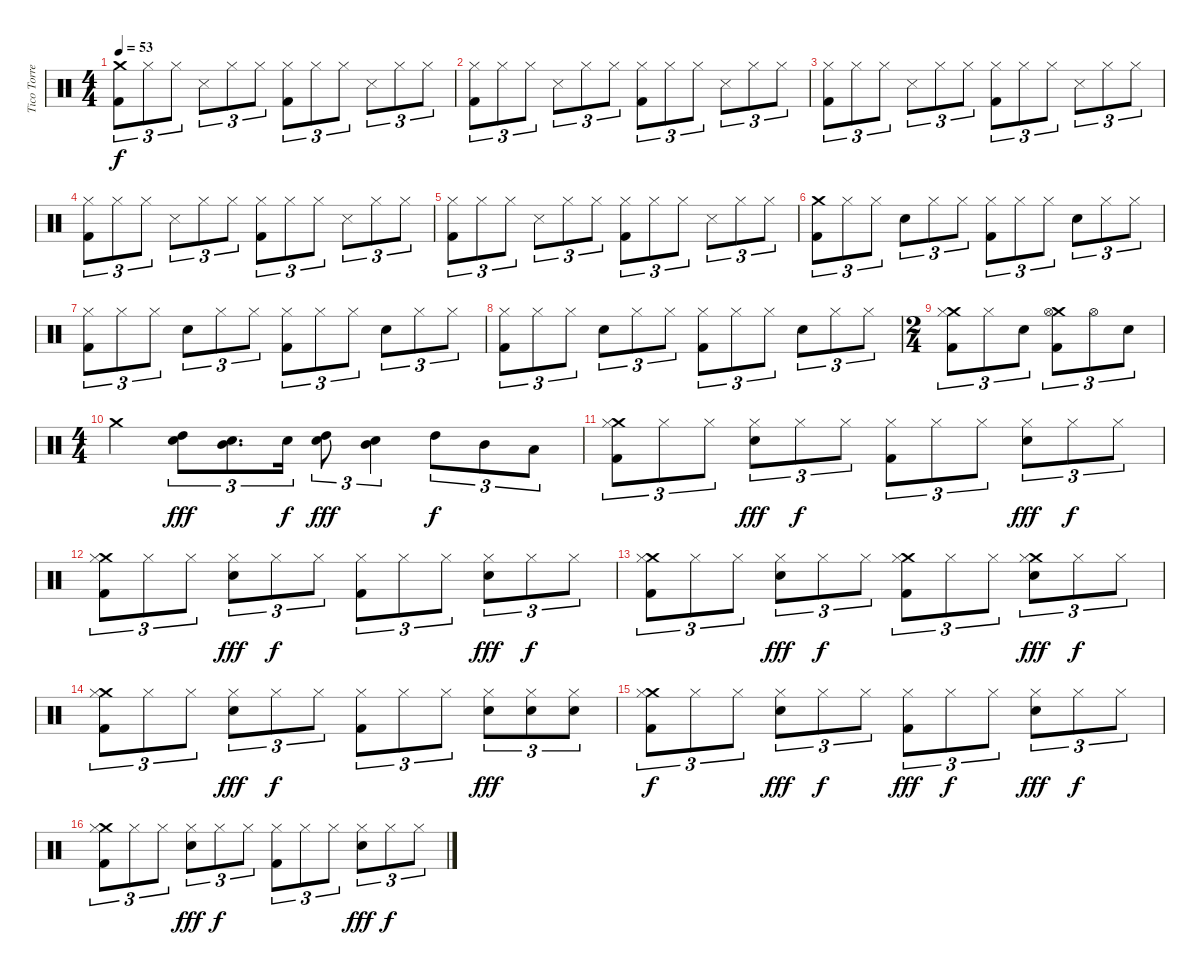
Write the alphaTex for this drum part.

\track ("Tico Torres (Drums)" "Tico Torre") {instrument percussion}
\staff {score}
\articulation defaults
\ts (4 4)
\tempo 53
\clef neutral
\ks c
("Crash medium (hit)" "Kick (hit) 2").8{tu (3 2) dy f} "Hi-Hat (closed)".8{tu (3 2) volume 3} "Hi-Hat (closed)".8{tu (3 2) volume 3} "Snare (side stick) 3".8{tu (3 2) volume 16} "Hi-Hat (closed)".8{tu (3 2) volume 3} "Hi-Hat (closed)".8{tu (3 2) volume 3} ("Hi-Hat (closed)" "Kick (hit) 2").8{tu (3 2) volume 3} "Hi-Hat (closed)".8{tu (3 2) volume 3} "Hi-Hat (closed)".8{tu (3 2) volume 3} "Snare (side stick) 3".8{tu (3 2) volume 16} "Hi-Hat (closed)".8{tu (3 2) volume 3} "Hi-Hat (closed)".8{tu (3 2) volume 3} |
("Hi-Hat (closed)" "Kick (hit) 2").8{tu (3 2) volume 3} "Hi-Hat (closed)".8{tu (3 2) volume 3} "Hi-Hat (closed)".8{tu (3 2) volume 3} "Snare (side stick) 3".8{tu (3 2) volume 16} "Hi-Hat (closed)".8{tu (3 2) volume 3} "Hi-Hat (closed)".8{tu (3 2) volume 3} ("Hi-Hat (closed)" "Kick (hit) 2").8{tu (3 2) volume 3} "Hi-Hat (closed)".8{tu (3 2) volume 3} "Hi-Hat (closed)".8{tu (3 2) volume 3} "Snare (side stick) 3".8{tu (3 2) volume 16} "Hi-Hat (closed)".8{tu (3 2) volume 3} "Hi-Hat (closed)".8{tu (3 2) volume 3} |
("Hi-Hat (closed)" "Kick (hit) 2").8{tu (3 2) volume 3} "Hi-Hat (closed)".8{tu (3 2) volume 3} "Hi-Hat (closed)".8{tu (3 2) volume 3} "Snare (side stick) 3".8{tu (3 2) volume 16} "Hi-Hat (closed)".8{tu (3 2) volume 3} "Hi-Hat (closed)".8{tu (3 2) volume 3} ("Hi-Hat (closed)" "Kick (hit) 2").8{tu (3 2) volume 3} "Hi-Hat (closed)".8{tu (3 2) volume 3} "Hi-Hat (closed)".8{tu (3 2) volume 3} "Snare (side stick) 3".8{tu (3 2) volume 16} "Hi-Hat (closed)".8{tu (3 2) volume 3} "Hi-Hat (closed)".8{tu (3 2) volume 3} |
("Hi-Hat (closed)" "Kick (hit) 2").8{tu (3 2) volume 3} "Hi-Hat (closed)".8{tu (3 2) volume 3} "Hi-Hat (closed)".8{tu (3 2) volume 3} "Snare (side stick) 3".8{tu (3 2) volume 16} "Hi-Hat (closed)".8{tu (3 2) volume 3} "Hi-Hat (closed)".8{tu (3 2) volume 3} ("Hi-Hat (closed)" "Kick (hit) 2").8{tu (3 2) volume 3} "Hi-Hat (closed)".8{tu (3 2) volume 3} "Hi-Hat (closed)".8{tu (3 2) volume 3} "Snare (side stick) 3".8{tu (3 2) volume 16} "Hi-Hat (closed)".8{tu (3 2) volume 3} "Hi-Hat (closed)".8{tu (3 2) volume 3} |
("Hi-Hat (closed)" "Kick (hit) 2").8{tu (3 2) volume 3} "Hi-Hat (closed)".8{tu (3 2) volume 3} "Hi-Hat (closed)".8{tu (3 2) volume 3} "Snare (side stick) 3".8{tu (3 2) volume 16} "Hi-Hat (closed)".8{tu (3 2) volume 3} "Hi-Hat (closed)".8{tu (3 2) volume 3} ("Hi-Hat (closed)" "Kick (hit) 2").8{tu (3 2) volume 3} "Hi-Hat (closed)".8{tu (3 2) volume 3} "Hi-Hat (closed)".8{tu (3 2) volume 3} "Snare (side stick) 3".8{tu (3 2) volume 16} "Hi-Hat (closed)".8{tu (3 2) volume 3} "Hi-Hat (closed)".8{tu (3 2) volume 3} |
("Crash medium (hit)" "Kick (hit) 2").8{tu (3 2)} "Hi-Hat (closed)".8{tu (3 2) volume 5} "Hi-Hat (closed)".8{tu (3 2) volume 5} "Snare (hit) 2".8{tu (3 2) volume 16} "Hi-Hat (closed)".8{tu (3 2) volume 5} "Hi-Hat (closed)".8{tu (3 2) volume 5} ("Hi-Hat (closed)" "Kick (hit) 2").8{tu (3 2) volume 5} "Hi-Hat (closed)".8{tu (3 2) volume 5} "Hi-Hat (closed)".8{tu (3 2) volume 5} "Snare (hit) 2".8{tu (3 2) volume 16} "Hi-Hat (closed)".8{tu (3 2) volume 5} "Hi-Hat (closed)".8{tu (3 2) volume 5} |
("Hi-Hat (closed)" "Kick (hit) 2").8{tu (3 2) volume 6} "Hi-Hat (closed)".8{tu (3 2) volume 5} "Hi-Hat (closed)".8{tu (3 2) volume 5} "Snare (hit) 2".8{tu (3 2) volume 16} "Hi-Hat (closed)".8{tu (3 2) volume 5} "Hi-Hat (closed)".8{tu (3 2) volume 5} ("Hi-Hat (closed)" "Kick (hit) 2").8{tu (3 2) volume 5} "Hi-Hat (closed)".8{tu (3 2) volume 5} "Hi-Hat (closed)".8{tu (3 2) volume 5} "Snare (hit) 2".8{tu (3 2) volume 16} "Hi-Hat (closed)".8{tu (3 2) volume 5} "Hi-Hat (closed)".8{tu (3 2) volume 5} |
("Hi-Hat (closed)" "Kick (hit) 2").8{tu (3 2) volume 6} "Hi-Hat (closed)".8{tu (3 2) volume 5} "Hi-Hat (closed)".8{tu (3 2) volume 5} "Snare (hit) 2".8{tu (3 2) volume 16} "Hi-Hat (closed)".8{tu (3 2) volume 5} "Hi-Hat (closed)".8{tu (3 2) volume 5} ("Hi-Hat (closed)" "Kick (hit) 2").8{tu (3 2) volume 5} "Hi-Hat (closed)".8{tu (3 2) volume 5} "Hi-Hat (closed)".8{tu (3 2) volume 5} "Snare (hit) 2".8{tu (3 2) volume 16} "Hi-Hat (closed)".8{tu (3 2) volume 5} "Hi-Hat (closed)".8{tu (3 2) volume 5} |
\ts (2 4)
("Crash medium (hit)" "Hi-Hat (closed)" "Kick (hit) 2").8{tu (3 2) volume 14} "Hi-Hat (closed)".8{tu (3 2)} "Snare (hit) 2".8{tu (3 2)} ("Crash medium (hit)" "Hi-Hat (open)" "Kick (hit) 2").8{tu (3 2)} "Hi-Hat (open)".8{tu (3 2)} "Snare (hit) 2".8{tu (3 2)} |
\ts (4 4)
"Crash medium (hit)".4 ("High Tom (hit)" "Snare (hit) 2").8{tu (3 2) dy fff} ("Mid Tom (hit)" "Snare (hit) 2").8{d tu (3 2)} "Snare (hit) 2".16{tu (3 2) dy f} ("High Tom (hit)" "Snare (hit) 2").8{tu (3 2) dy fff} ("Mid Tom (hit)" "Snare (hit) 2").4{tu (3 2)} "High Tom (hit)".8{tu (3 2) dy f} "Mid Tom (hit)".8{tu (3 2)} "Low Tom (hit)".8{tu (3 2)} |
("Crash medium (hit)" "Hi-Hat (closed)" "Kick (hit) 2").8{tu (3 2)} "Hi-Hat (closed)".8{tu (3 2)} "Hi-Hat (closed)".8{tu (3 2)} ("Snare (hit) 2" "Hi-Hat (closed)").8{tu (3 2) dy fff} "Hi-Hat (closed)".8{tu (3 2) dy f} "Hi-Hat (closed)".8{tu (3 2)} ("Hi-Hat (closed)" "Kick (hit) 2").8{tu (3 2)} "Hi-Hat (closed)".8{tu (3 2)} "Hi-Hat (closed)".8{tu (3 2)} ("Snare (hit) 2" "Hi-Hat (closed)").8{tu (3 2) dy fff} "Hi-Hat (closed)".8{tu (3 2) dy f} "Hi-Hat (closed)".8{tu (3 2)} |
("Crash medium (hit)" "Hi-Hat (closed)" "Kick (hit) 2").8{tu (3 2)} "Hi-Hat (closed)".8{tu (3 2)} "Hi-Hat (closed)".8{tu (3 2)} ("Snare (hit) 2" "Hi-Hat (closed)").8{tu (3 2) dy fff} "Hi-Hat (closed)".8{tu (3 2) dy f} "Hi-Hat (closed)".8{tu (3 2)} ("Hi-Hat (closed)" "Kick (hit) 2").8{tu (3 2)} "Hi-Hat (closed)".8{tu (3 2)} "Hi-Hat (closed)".8{tu (3 2)} ("Snare (hit) 2" "Hi-Hat (closed)").8{tu (3 2) dy fff} "Hi-Hat (closed)".8{tu (3 2) dy f} "Hi-Hat (closed)".8{tu (3 2)} |
("Crash medium (hit)" "Hi-Hat (closed)" "Kick (hit) 2").8{tu (3 2)} "Hi-Hat (closed)".8{tu (3 2)} "Hi-Hat (closed)".8{tu (3 2)} ("Snare (hit) 2" "Hi-Hat (closed)").8{tu (3 2) dy fff} "Hi-Hat (closed)".8{tu (3 2) dy f} "Hi-Hat (closed)".8{tu (3 2)} ("Crash medium (hit)" "Hi-Hat (closed)" "Kick (hit) 2").8{tu (3 2)} "Hi-Hat (closed)".8{tu (3 2)} "Hi-Hat (closed)".8{tu (3 2)} ("Crash medium (hit)" "Snare (hit) 2" "Hi-Hat (closed)").8{tu (3 2) dy fff} "Hi-Hat (closed)".8{tu (3 2) dy f} "Hi-Hat (closed)".8{tu (3 2)} |
("Crash medium (hit)" "Hi-Hat (closed)" "Kick (hit) 2").8{tu (3 2)} "Hi-Hat (closed)".8{tu (3 2)} "Hi-Hat (closed)".8{tu (3 2)} ("Snare (hit) 2" "Hi-Hat (closed)").8{tu (3 2) dy fff} "Hi-Hat (closed)".8{tu (3 2) dy f} "Hi-Hat (closed)".8{tu (3 2)} ("Hi-Hat (closed)" "Kick (hit) 2").8{tu (3 2)} "Hi-Hat (closed)".8{tu (3 2)} "Hi-Hat (closed)".8{tu (3 2)} ("Snare (hit) 2" "Hi-Hat (closed)").8{tu (3 2) dy fff} ("Snare (hit) 2" "Hi-Hat (closed)").8{tu (3 2)} ("Snare (hit) 2" "Hi-Hat (closed)").8{tu (3 2)} |
("Crash medium (hit)" "Hi-Hat (closed)" "Kick (hit) 2").8{tu (3 2) dy f} "Hi-Hat (closed)".8{tu (3 2)} "Hi-Hat (closed)".8{tu (3 2)} ("Snare (hit) 2" "Hi-Hat (closed)").8{tu (3 2) dy fff} "Hi-Hat (closed)".8{tu (3 2) dy f} "Hi-Hat (closed)".8{tu (3 2)} ("Hi-Hat (closed)" "Kick (hit) 2").8{tu (3 2) dy fff} "Hi-Hat (closed)".8{tu (3 2) dy f} "Hi-Hat (closed)".8{tu (3 2)} ("Snare (hit) 2" "Hi-Hat (closed)").8{tu (3 2) dy fff} "Hi-Hat (closed)".8{tu (3 2) dy f} "Hi-Hat (closed)".8{tu (3 2)} |
("Crash medium (hit)" "Hi-Hat (closed)" "Kick (hit) 2").8{tu (3 2)} "Hi-Hat (closed)".8{tu (3 2)} "Hi-Hat (closed)".8{tu (3 2)} ("Snare (hit) 2" "Hi-Hat (closed)").8{tu (3 2) dy fff} "Hi-Hat (closed)".8{tu (3 2) dy f} "Hi-Hat (closed)".8{tu (3 2)} ("Hi-Hat (closed)" "Kick (hit) 2").8{tu (3 2)} "Hi-Hat (closed)".8{tu (3 2)} "Hi-Hat (closed)".8{tu (3 2)} ("Snare (hit) 2" "Hi-Hat (closed)").8{tu (3 2) dy fff} "Hi-Hat (closed)".8{tu (3 2) dy f} "Hi-Hat (closed)".8{tu (3 2)}
